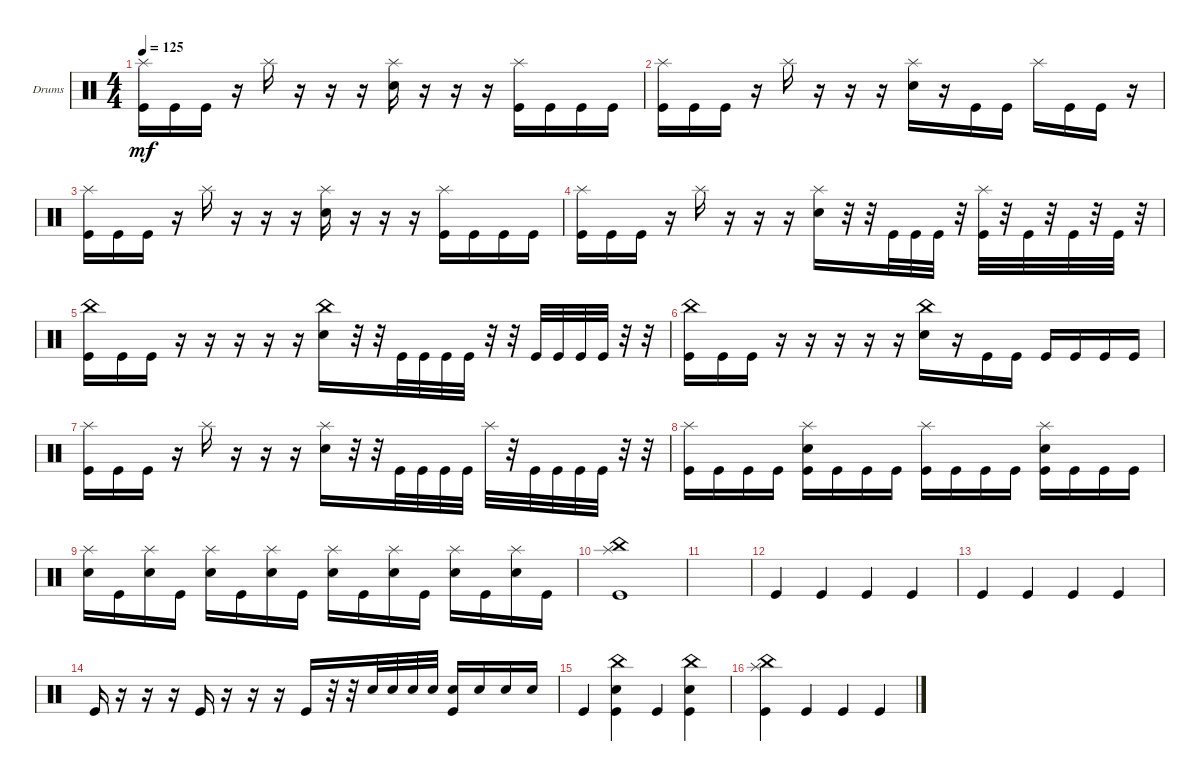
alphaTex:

\bracketExtendMode groupsimilarinstruments
\firstSystemTrackNameOrientation horizontal
\otherSystemsTrackNameOrientation horizontal
\track ("Drumkit" "Drums") {solo instrument percussion}
\staff {score}
\articulation defaults
\ts (4 4)
\tempo 125
\clef neutral
\ks c
("Splash (hit)" "Kick (hit)").16{dy mf} "Kick (hit)".16 "Kick (hit)".16 r.16 "Splash (hit)".16 r.16 r.16 r.16 ("Splash (hit)" "Snare (hit) 2").16 r.16 r.16 r.16 ("Splash (hit)" "Kick (hit)").16 "Kick (hit)".16 "Kick (hit)".16 "Kick (hit)".16 |
("Splash (hit)" "Kick (hit)").16 "Kick (hit)".16 "Kick (hit)".16 r.16 "Splash (hit)".16 r.16 r.16 r.16 ("Splash (hit)" "Snare (hit) 2").16 r.16 "Kick (hit)".16 "Kick (hit)".16 "Splash (hit)".16 "Kick (hit)".16 "Kick (hit)".16 r.16 |
("Splash (hit)" "Kick (hit)").16 "Kick (hit)".16 "Kick (hit)".16 r.16 "Splash (hit)".16 r.16 r.16 r.16 ("Splash (hit)" "Snare (hit) 2").16 r.16 r.16 r.16 ("Splash (hit)" "Kick (hit)").16 "Kick (hit)".16 "Kick (hit)".16 "Kick (hit)".16 |
("Splash (hit)" "Kick (hit)").16 "Kick (hit)".16 "Kick (hit)".16 r.16 "Splash (hit)".16 r.16 r.16 r.16 ("Splash (hit)" "Snare (hit) 2").16 r.32 r.32 "Kick (hit)".32 "Kick (hit)".32 "Kick (hit)".32 r.32 ("Splash (hit)" "Kick (hit)").32 r.32 "Kick (hit)".32 r.32 "Kick (hit)".32 r.32 "Kick (hit)".32 r.32 |
("Kick (hit)" "China (hit)").16 "Kick (hit)".16 "Kick (hit)".16 r.16 r.16 r.16 r.16 r.16 ("Snare (hit) 2" "China (hit)").16 r.32 r.32 "Kick (hit)".32 "Kick (hit)".32 "Kick (hit)".32 "Kick (hit)".32 r.32 r.32 "Kick (hit)".32 "Kick (hit)".32 "Kick (hit)".32 "Kick (hit)".32 r.32 r.32 |
("Kick (hit)" "China (hit)").16 "Kick (hit)".16 "Kick (hit)".16 r.16 r.16 r.16 r.16 r.16 ("Snare (hit) 2" "China (hit)").16 r.16 "Kick (hit)".16 "Kick (hit)".16 "Kick (hit)".16 "Kick (hit)".16 "Kick (hit)".16 "Kick (hit)".16 |
("Splash (hit)" "Kick (hit)").16 "Kick (hit)".16 "Kick (hit)".16 r.16 "Splash (hit)".16 r.16 r.16 r.16 ("Splash (hit)" "Snare (hit) 2").16 r.32 r.32 "Kick (hit)".32 "Kick (hit)".32 "Kick (hit)".32 "Kick (hit)".32 "Splash (hit)".32 r.32 "Kick (hit)".32 "Kick (hit)".32 "Kick (hit)".32 "Kick (hit)".32 r.32 r.32 |
("Splash (hit)" "Kick (hit)").16 "Kick (hit)".16 "Kick (hit)".16 "Kick (hit)".16 ("Splash (hit)" "Kick (hit)" "Snare (hit) 2").16 "Kick (hit)".16 "Kick (hit)".16 "Kick (hit)".16 ("Splash (hit)" "Kick (hit)").16 "Kick (hit)".16 "Kick (hit)".16 "Kick (hit)".16 ("Splash (hit)" "Kick (hit)" "Snare (hit) 2").16 "Kick (hit)".16 "Kick (hit)".16 "Kick (hit)".16 |
("Splash (hit)" "Snare (hit) 2").16 "Kick (hit)".16 ("Snare (hit) 2" "Splash (hit)").16 "Kick (hit)".16 ("Splash (hit)" "Snare (hit) 2").16 "Kick (hit)".16 ("Snare (hit) 2" "Splash (hit)").16 "Kick (hit)".16 ("Splash (hit)" "Snare (hit) 2").16 "Kick (hit)".16 ("Snare (hit) 2" "Splash (hit)").16 "Kick (hit)".16 ("Splash (hit)" "Snare (hit) 2").16 "Kick (hit)".16 ("Snare (hit) 2" "Splash (hit)").16 "Kick (hit)".16 |
("Splash (hit)" "China (hit)" "Kick (hit)").1 |
|
"Kick (hit)".4 "Kick (hit)".4 "Kick (hit)".4 "Kick (hit)".4 |
"Kick (hit)".4 "Kick (hit)".4 "Kick (hit)".4 "Kick (hit)".4 |
"Kick (hit)".16 r.16 r.16 r.16 "Kick (hit)".16 r.16 r.16 r.16 "Kick (hit)".16 r.32 r.32 "Snare (hit) 2".32 "Snare (hit) 2".32 "Snare (hit) 2".32 "Snare (hit) 2".32 ("Kick (hit)" "Snare (hit) 2").16 "Snare (hit) 2".16 "Snare (hit) 2".16 "Snare (hit) 2".16 |
"Kick (hit)".4 ("Kick (hit)" "Snare (hit) 2" "China (hit)").4 "Kick (hit)".4 ("Kick (hit)" "Snare (hit) 2" "China (hit)").4 |
("Kick (hit)" "China (hit)" "Splash (hit)").4 "Kick (hit)".4 "Kick (hit)".4 "Kick (hit)".4
